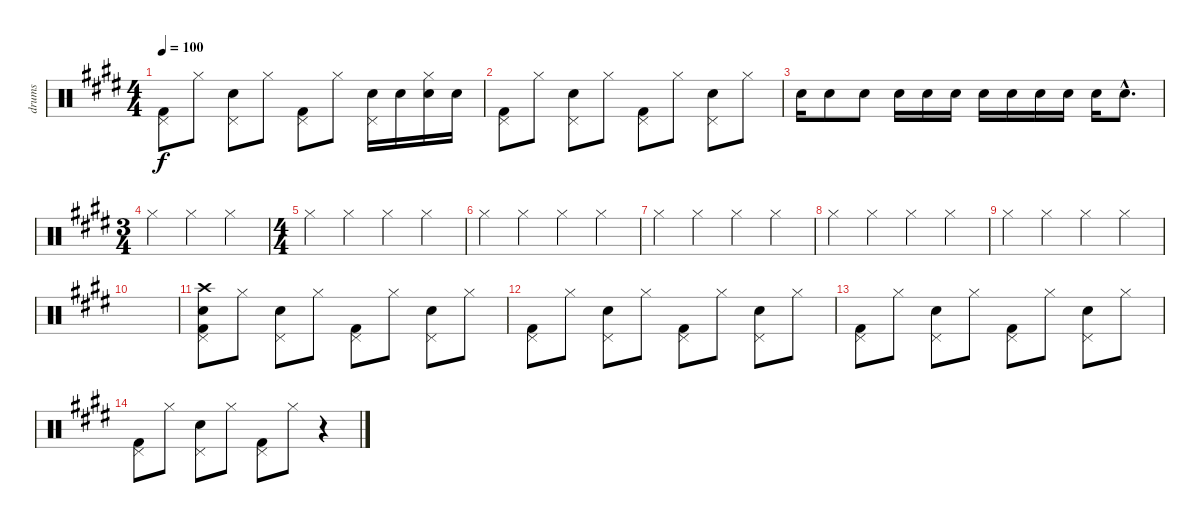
\track ("drums" "drums") {instrument percussion}
\staff {score}
\articulation defaults
\ts (4 4)
\tempo 100
\clef neutral
\ks e
("Pedal Hi-Hat (hit)" "Kick (hit) 2").8{dy f} "Hi-Hat (closed)".8 ("Snare (hit) 2" "Pedal Hi-Hat (hit)").8 "Hi-Hat (closed)".8 ("Pedal Hi-Hat (hit)" "Kick (hit) 2").8 "Hi-Hat (closed)".8 ("Snare (hit) 2" "Pedal Hi-Hat (hit)").16 "Snare (hit) 2".16 ("Snare (hit) 2" "Hi-Hat (closed)").16 "Snare (hit) 2".16 |
("Pedal Hi-Hat (hit)" "Kick (hit) 2").8 "Hi-Hat (closed)".8 ("Snare (hit) 2" "Pedal Hi-Hat (hit)").8 "Hi-Hat (closed)".8 ("Pedal Hi-Hat (hit)" "Kick (hit) 2").8 "Hi-Hat (closed)".8 ("Snare (hit) 2" "Pedal Hi-Hat (hit)").8 "Hi-Hat (closed)".8 |
"Snare (hit) 2".16 "Snare (hit) 2".8 "Snare (hit) 2".8 "Snare (hit) 2".16 "Snare (hit) 2".16 "Snare (hit) 2".16 "Snare (hit) 2".16 "Snare (hit) 2".16 "Snare (hit) 2".16 "Snare (hit) 2".16 "Snare (hit) 2".16 "Snare (hit) 2"{hac}.8{d} |
\ts (3 4)
"Hi-Hat (closed)".4 "Hi-Hat (closed)".4 "Hi-Hat (closed)".4 |
\ts (4 4)
"Hi-Hat (closed)".4 "Hi-Hat (closed)".4 "Hi-Hat (closed)".4 "Hi-Hat (closed)".4 |
"Hi-Hat (closed)".4 "Hi-Hat (closed)".4 "Hi-Hat (closed)".4 "Hi-Hat (closed)".4 |
"Hi-Hat (closed)".4 "Hi-Hat (closed)".4 "Hi-Hat (closed)".4 "Hi-Hat (closed)".4 |
"Hi-Hat (closed)".4 "Hi-Hat (closed)".4 "Hi-Hat (closed)".4 "Hi-Hat (closed)".4 |
"Hi-Hat (closed)".4 "Hi-Hat (closed)".4 "Hi-Hat (closed)".4 "Hi-Hat (closed)".4 |
|
("Crash high (hit)" "Snare (hit)" "Pedal Hi-Hat (hit)" "Kick (hit) 2").8 "Hi-Hat (closed)".8 ("Snare (hit) 2" "Pedal Hi-Hat (hit)").8 "Hi-Hat (closed)".8 ("Pedal Hi-Hat (hit)" "Kick (hit) 2").8 "Hi-Hat (closed)".8 ("Snare (hit) 2" "Pedal Hi-Hat (hit)").8 "Hi-Hat (closed)".8 |
("Pedal Hi-Hat (hit)" "Kick (hit) 2").8 "Hi-Hat (closed)".8 ("Snare (hit) 2" "Pedal Hi-Hat (hit)").8 "Hi-Hat (closed)".8 ("Pedal Hi-Hat (hit)" "Kick (hit) 2").8 "Hi-Hat (closed)".8 ("Snare (hit) 2" "Pedal Hi-Hat (hit)").8 "Hi-Hat (closed)".8 |
("Pedal Hi-Hat (hit)" "Kick (hit) 2").8 "Hi-Hat (closed)".8 ("Snare (hit) 2" "Pedal Hi-Hat (hit)").8 "Hi-Hat (closed)".8 ("Pedal Hi-Hat (hit)" "Kick (hit) 2").8 "Hi-Hat (closed)".8 ("Snare (hit) 2" "Pedal Hi-Hat (hit)").8 "Hi-Hat (closed)".8 |
("Pedal Hi-Hat (hit)" "Kick (hit) 2").8 "Hi-Hat (closed)".8 ("Snare (hit) 2" "Pedal Hi-Hat (hit)").8 "Hi-Hat (closed)".8 ("Pedal Hi-Hat (hit)" "Kick (hit) 2").8 "Hi-Hat (closed)".8 r.4
